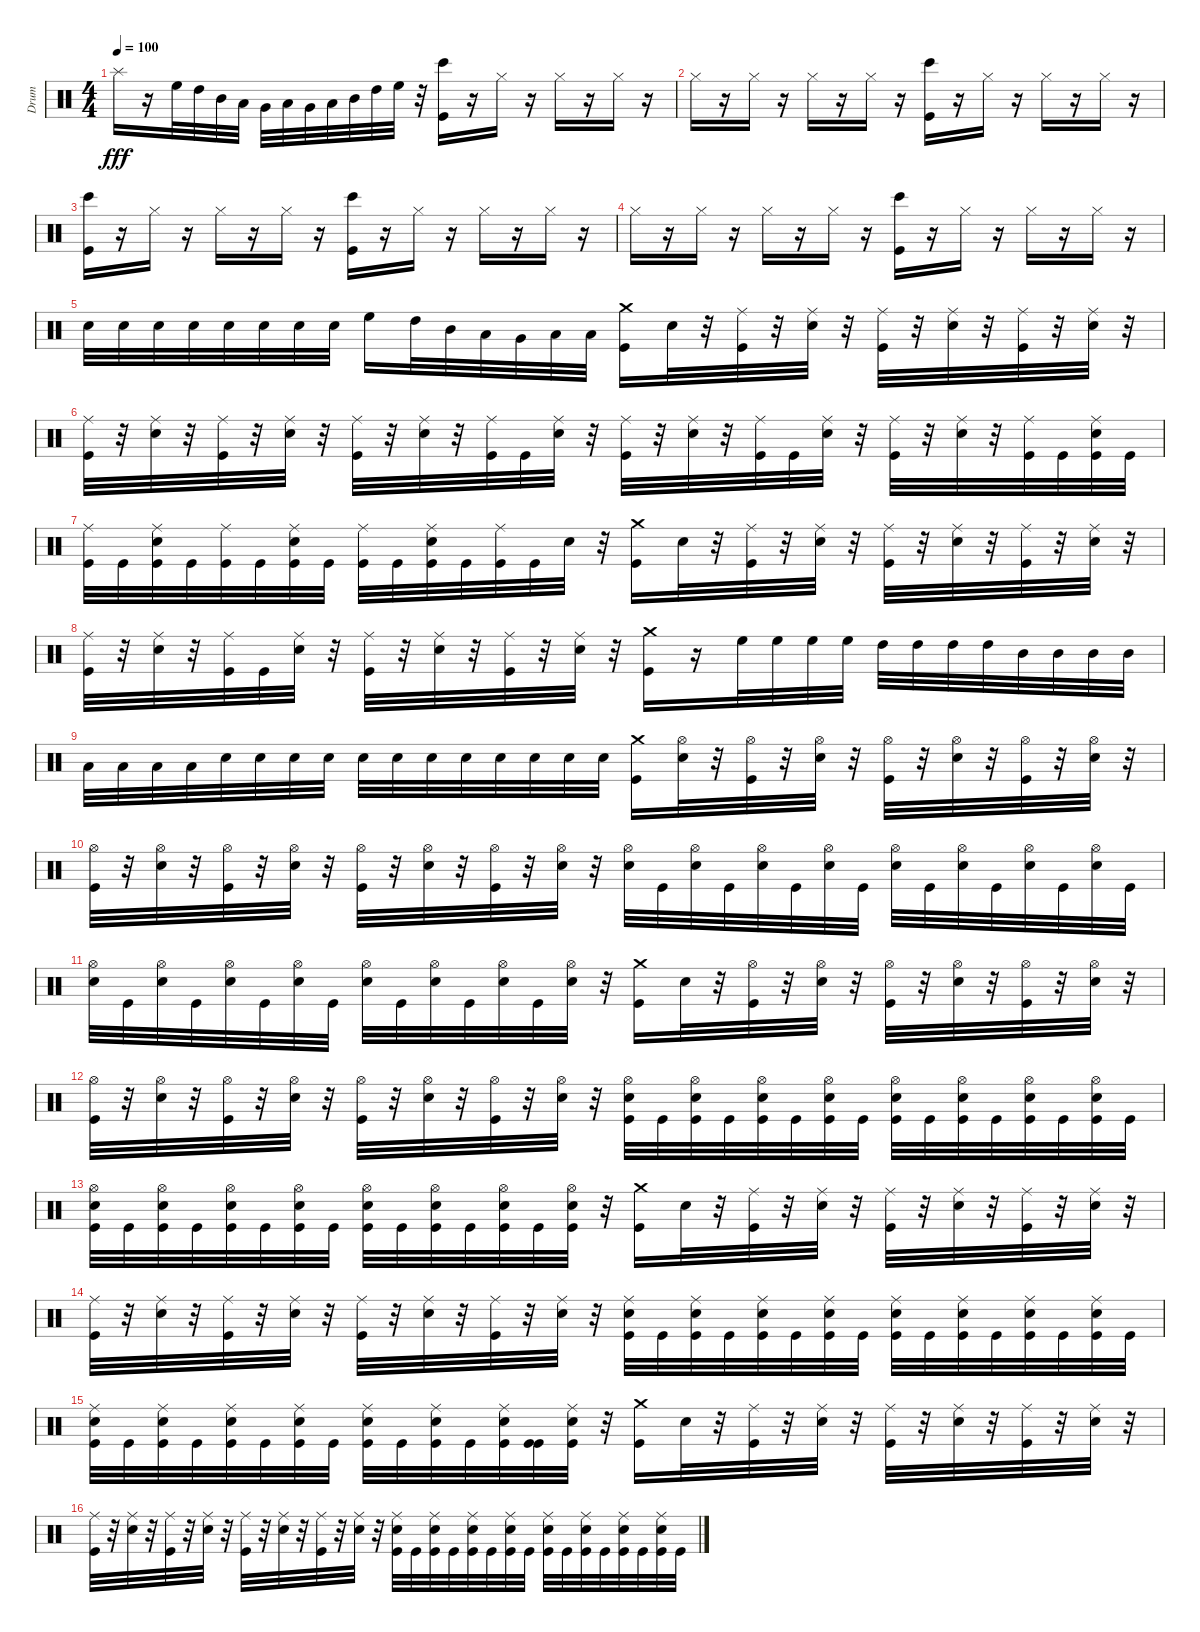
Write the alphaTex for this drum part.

\track ("Drum" "Drum") {instrument percussion}
\staff {score}
\articulation defaults
\ts (4 4)
\tempo 100
\clef neutral
\ks c "Splash (hit)".16{dy fff}
r.16 "High Floor Tom (hit)".32 "High Tom (hit)".32 "Mid Tom (hit)".32 "Low Tom (hit)".32 "Very Low Tom (hit)".32 "Low Floor Tom (hit)".32 "Very Low Tom (hit)".32 "Low Tom (hit)".32 "Mid Tom (hit)".32 "High Tom (hit)".32 "High Floor Tom (hit)".32 r.32 ("Bongo High (hit)" "Kick (hit)").16 r.16 "Hi-Hat (closed)".16 r.16 "Hi-Hat (closed)".16 r.16 "Hi-Hat (closed)".16 r.16 |
"Hi-Hat (closed)".16 r.16 "Hi-Hat (closed)".16 r.16 "Hi-Hat (closed)".16 r.16 "Hi-Hat (closed)".16 r.16 ("Kick (hit)" "Bongo High (hit)").16 r.16 "Hi-Hat (closed)".16 r.16 "Hi-Hat (closed)".16 r.16 "Hi-Hat (closed)".16 r.16 |
("Kick (hit)" "Bongo High (hit)").16 r.16 "Hi-Hat (closed)".16 r.16 "Hi-Hat (closed)".16 r.16 "Hi-Hat (closed)".16 r.16 ("Kick (hit)" "Bongo High (hit)").16 r.16 "Hi-Hat (closed)".16 r.16 "Hi-Hat (closed)".16 r.16 "Hi-Hat (closed)".16 r.16 |
"Hi-Hat (closed)".16 r.16 "Hi-Hat (closed)".16 r.16 "Hi-Hat (closed)".16 r.16 "Hi-Hat (closed)".16 r.16 ("Kick (hit)" "Bongo High (hit)").16 r.16 "Hi-Hat (closed)".16 r.16 "Hi-Hat (closed)".16 r.16 "Hi-Hat (closed)".16 r.16 |
"Snare (hit) 2".32 "Snare (hit) 2".32 "Snare (hit) 2".32 "Snare (hit) 2".32 "Snare (hit) 2".32 "Snare (hit) 2".32 "Snare (hit) 2".32 "Snare (hit) 2".32 "High Floor Tom (hit)".16 "High Tom (hit)".32 "Mid Tom (hit)".32 "Low Tom (hit)".32 "Very Low Tom (hit)".32 "Low Floor Tom (hit)".32 "Low Floor Tom (hit)".32 ("Crash medium (hit)" "Kick (hit)").16 "Snare (hit) 2".32 r.32 ("Ride (middle)" "Kick (hit)").32 r.32 ("Snare (hit) 2" "Ride (middle)").32 r.32 ("Kick (hit)" "Ride (middle)").32 r.32 ("Ride (middle)" "Snare (hit) 2").32 r.32 ("Kick (hit)" "Ride (middle)").32 r.32 ("Snare (hit) 2" "Ride (middle)").32 r.32 |
("Ride (middle)" "Kick (hit)").32 r.32 ("Snare (hit) 2" "Ride (middle)").32 r.32 ("Kick (hit)" "Ride (middle)").32 r.32 ("Ride (middle)" "Snare (hit) 2").32 r.32 ("Ride (middle)" "Kick (hit)").32 r.32 ("Snare (hit) 2" "Ride (middle)").32 r.32 ("Ride (middle)" "Kick (hit)").32 "Kick (hit)".32 ("Snare (hit) 2" "Ride (middle)").32 r.32 ("Ride (middle)" "Kick (hit)").32 r.32 ("Ride (middle)" "Snare (hit) 2").32 r.32 ("Kick (hit)" "Ride (middle)").32 "Kick (hit)".32 ("Snare (hit) 2" "Ride (middle)").32 r.32 ("Kick (hit)" "Ride (middle)").32 r.32 ("Ride (middle)" "Snare (hit) 2").32 r.32 ("Ride (middle)" "Kick (hit)").32 "Kick (hit)".32 ("Ride (middle)" "Kick (hit)" "Snare (hit) 2").32 "Kick (hit)".32 |
("Kick (hit)" "Ride (middle)").32 "Kick (hit)".32 ("Kick (hit)" "Snare (hit) 2" "Ride (middle)").32 "Kick (hit)".32 ("Ride (middle)" "Kick (hit)").32 "Kick (hit)".32 ("Ride (middle)" "Snare (hit) 2" "Kick (hit)").32 "Kick (hit)".32 ("Ride (middle)" "Kick (hit)").32 "Kick (hit)".32 ("Ride (middle)" "Kick (hit)" "Snare (hit) 2").32 "Kick (hit)".32 ("Ride (middle)" "Kick (hit)").32 "Kick (hit)".32 "Snare (hit) 2".32 r.32 ("Kick (hit)" "Crash medium (hit)").16 "Snare (hit) 2".32 r.32 ("Ride (middle)" "Kick (hit)").32 r.32 ("Ride (middle)" "Snare (hit) 2").32 r.32 ("Kick (hit)" "Ride (middle)").32 r.32 ("Ride (middle)" "Snare (hit) 2").32 r.32 ("Kick (hit)" "Ride (middle)").32 r.32 ("Ride (middle)" "Snare (hit) 2").32 r.32 |
("Ride (middle)" "Kick (hit)").32 r.32 ("Snare (hit) 2" "Ride (middle)").32 r.32 ("Ride (middle)" "Kick (hit)").32 "Kick (hit)".32 ("Snare (hit) 2" "Ride (middle)").32 r.32 ("Kick (hit)" "Ride (middle)").32 r.32 ("Snare (hit) 2" "Ride (middle)").32 r.32 ("Ride (middle)" "Kick (hit)").32 r.32 ("Snare (hit) 2" "Ride (middle)").32 r.32 ("Crash medium (hit)" "Kick (hit)").16 r.16 "High Floor Tom (hit)".32 "High Floor Tom (hit)".32 "High Floor Tom (hit)".32 "High Floor Tom (hit)".32 "High Tom (hit)".32 "High Tom (hit)".32 "High Tom (hit)".32 "High Tom (hit)".32 "Mid Tom (hit)".32 "Mid Tom (hit)".32 "Mid Tom (hit)".32 "Mid Tom (hit)".32 |
"Low Tom (hit)".32 "Low Tom (hit)".32 "Low Tom (hit)".32 "Low Tom (hit)".32 "Snare (hit) 2".32 "Snare (hit) 2".32 "Snare (hit) 2".32 "Snare (hit) 2".32 "Snare (hit) 2".32 "Snare (hit) 2".32 "Snare (hit) 2".32 "Snare (hit) 2".32 "Snare (hit) 2".32 "Snare (hit) 2".32 "Snare (hit) 2".32 "Snare (hit) 2".32 ("Crash medium (hit)" "Kick (hit)").16 ("Snare (hit) 2" "Hi-Hat (open)").32 r.32 ("Hi-Hat (open)" "Kick (hit)").32 r.32 ("Snare (hit) 2" "Hi-Hat (open)").32 r.32 ("Hi-Hat (open)" "Kick (hit)").32 r.32 ("Snare (hit) 2" "Hi-Hat (open)").32 r.32 ("Hi-Hat (open)" "Kick (hit)").32 r.32 ("Hi-Hat (open)" "Snare (hit) 2").32 r.32 |
("Hi-Hat (open)" "Kick (hit)").32 r.32 ("Snare (hit) 2" "Hi-Hat (open)").32 r.32 ("Hi-Hat (open)" "Kick (hit)").32 r.32 ("Hi-Hat (open)" "Snare (hit) 2").32 r.32 ("Kick (hit)" "Hi-Hat (open)").32 r.32 ("Hi-Hat (open)" "Snare (hit) 2").32 r.32 ("Kick (hit)" "Hi-Hat (open)").32 r.32 ("Hi-Hat (open)" "Snare (hit) 2").32 r.32 ("Snare (hit) 2" "Hi-Hat (open)").32 "Kick (hit)".32 ("Snare (hit) 2" "Hi-Hat (open)").32 "Kick (hit)".32 ("Snare (hit) 2" "Hi-Hat (open)").32 "Kick (hit)".32 ("Snare (hit) 2" "Hi-Hat (open)").32 "Kick (hit)".32 ("Hi-Hat (open)" "Snare (hit) 2").32 "Kick (hit)".32 ("Snare (hit) 2" "Hi-Hat (open)").32 "Kick (hit)".32 ("Hi-Hat (open)" "Snare (hit) 2").32 "Kick (hit)".32 ("Hi-Hat (open)" "Snare (hit) 2").32 "Kick (hit)".32 |
("Snare (hit) 2" "Hi-Hat (open)").32 "Kick (hit)".32 ("Snare (hit) 2" "Hi-Hat (open)").32 "Kick (hit)".32 ("Hi-Hat (open)" "Snare (hit) 2").32 "Kick (hit)".32 ("Snare (hit) 2" "Hi-Hat (open)").32 "Kick (hit)".32 ("Hi-Hat (open)" "Snare (hit) 2").32 "Kick (hit)".32 ("Hi-Hat (open)" "Snare (hit) 2").32 "Kick (hit)".32 ("Snare (hit) 2" "Hi-Hat (open)").32 "Kick (hit)".32 ("Hi-Hat (open)" "Snare (hit) 2").32 r.32 ("Kick (hit)" "Crash medium (hit)").16 "Snare (hit) 2".32 r.32 ("Kick (hit)" "Hi-Hat (open)").32 r.32 ("Snare (hit) 2" "Hi-Hat (open)").32 r.32 ("Hi-Hat (open)" "Kick (hit)").32 r.32 ("Snare (hit) 2" "Hi-Hat (open)").32 r.32 ("Kick (hit)" "Hi-Hat (open)").32 r.32 ("Hi-Hat (open)" "Snare (hit) 2").32 r.32 |
("Hi-Hat (open)" "Kick (hit)").32 r.32 ("Snare (hit) 2" "Hi-Hat (open)").32 r.32 ("Kick (hit)" "Hi-Hat (open)").32 r.32 ("Hi-Hat (open)" "Snare (hit) 2").32 r.32 ("Hi-Hat (open)" "Kick (hit)").32 r.32 ("Snare (hit) 2" "Hi-Hat (open)").32 r.32 ("Kick (hit)" "Hi-Hat (open)").32 r.32 ("Hi-Hat (open)" "Snare (hit) 2").32 r.32 ("Kick (hit)" "Hi-Hat (open)" "Snare (hit) 2").32 "Kick (hit)".32 ("Snare (hit) 2" "Hi-Hat (open)" "Kick (hit)").32 "Kick (hit)".32 ("Snare (hit) 2" "Kick (hit)" "Hi-Hat (open)").32 "Kick (hit)".32 ("Kick (hit)" "Snare (hit) 2" "Hi-Hat (open)").32 "Kick (hit)".32 ("Hi-Hat (open)" "Kick (hit)" "Snare (hit) 2").32 "Kick (hit)".32 ("Kick (hit)" "Snare (hit) 2" "Hi-Hat (open)").32 "Kick (hit)".32 ("Kick (hit)" "Snare (hit) 2" "Hi-Hat (open)").32 "Kick (hit)".32 ("Hi-Hat (open)" "Kick (hit)" "Snare (hit) 2").32 "Kick (hit)".32 |
("Kick (hit)" "Snare (hit) 2" "Hi-Hat (open)").32 "Kick (hit)".32 ("Kick (hit)" "Hi-Hat (open)" "Snare (hit) 2").32 "Kick (hit)".32 ("Snare (hit) 2" "Kick (hit)" "Hi-Hat (open)").32 "Kick (hit)".32 ("Kick (hit)" "Hi-Hat (open)" "Snare (hit) 2").32 "Kick (hit)".32 ("Kick (hit)" "Hi-Hat (open)" "Snare (hit) 2").32 "Kick (hit)".32 ("Kick (hit)" "Hi-Hat (open)" "Snare (hit) 2").32 "Kick (hit)".32 ("Hi-Hat (open)" "Snare (hit) 2" "Kick (hit)").32 "Kick (hit)".32 ("Snare (hit) 2" "Kick (hit)" "Hi-Hat (open)").32 r.32 ("Crash medium (hit)" "Kick (hit)").16 "Snare (hit) 2".32 r.32 ("Kick (hit)" "Ride (middle)").32 r.32 ("Ride (middle)" "Snare (hit) 2").32 r.32 ("Ride (middle)" "Kick (hit)").32 r.32 ("Ride (middle)" "Snare (hit) 2").32 r.32 ("Kick (hit)" "Ride (middle)").32 r.32 ("Ride (middle)" "Snare (hit) 2").32 r.32 |
("Ride (middle)" "Kick (hit)").32 r.32 ("Snare (hit) 2" "Ride (middle)").32 r.32 ("Kick (hit)" "Ride (middle)").32 r.32 ("Snare (hit) 2" "Ride (middle)").32 r.32 ("Kick (hit)" "Ride (middle)").32 r.32 ("Snare (hit) 2" "Ride (middle)").32 r.32 ("Ride (middle)" "Kick (hit)").32 r.32 ("Snare (hit) 2" "Ride (middle)").32 r.32 ("Ride (middle)" "Kick (hit)" "Snare (hit) 2").32 "Kick (hit)".32 ("Snare (hit) 2" "Kick (hit)" "Ride (middle)").32 "Kick (hit)".32 ("Kick (hit)" "Snare (hit) 2" "Ride (middle)").32 "Kick (hit)".32 ("Ride (middle)" "Snare (hit) 2" "Kick (hit)").32 "Kick (hit)".32 ("Snare (hit) 2" "Ride (middle)" "Kick (hit)").32 "Kick (hit)".32 ("Snare (hit) 2" "Kick (hit)" "Ride (middle)").32 "Kick (hit)".32 ("Ride (middle)" "Kick (hit)" "Snare (hit) 2").32 "Kick (hit)".32 ("Snare (hit) 2" "Ride (middle)" "Kick (hit)").32 "Kick (hit)".32 |
("Kick (hit)" "Ride (middle)" "Snare (hit) 2").32 "Kick (hit)".32 ("Kick (hit)" "Snare (hit) 2" "Ride (middle)").32 "Kick (hit)".32 ("Snare (hit) 2" "Kick (hit)" "Ride (middle)").32 "Kick (hit)".32 ("Kick (hit)" "Snare (hit) 2" "Ride (middle)").32 "Kick (hit)".32 ("Ride (middle)" "Kick (hit)" "Snare (hit) 2").32 "Kick (hit)".32 ("Ride (middle)" "Snare (hit) 2" "Kick (hit)").32 "Kick (hit)".32 ("Snare (hit) 2" "Ride (middle)" "Kick (hit)").32 ("Kick (hit)" "Kick (hit)").32 ("Snare (hit) 2" "Ride (middle)" "Kick (hit)").32 r.32 ("Kick (hit)" "Crash medium (hit)").16 "Snare (hit) 2".32 r.32 ("Kick (hit)" "Ride (middle)").32 r.32 ("Ride (middle)" "Snare (hit) 2").32 r.32 ("Ride (middle)" "Kick (hit)").32 r.32 ("Ride (middle)" "Snare (hit) 2").32 r.32 ("Kick (hit)" "Ride (middle)").32 r.32 ("Ride (middle)" "Snare (hit) 2").32 r.32 |
("Kick (hit)" "Ride (middle)").32 r.32 ("Ride (middle)" "Snare (hit) 2").32 r.32 ("Ride (middle)" "Kick (hit)").32 r.32 ("Ride (middle)" "Snare (hit) 2").32 r.32 ("Ride (middle)" "Kick (hit)").32 r.32 ("Snare (hit) 2" "Ride (middle)").32 r.32 ("Ride (middle)" "Kick (hit)").32 r.32 ("Ride (middle)" "Snare (hit) 2").32 r.32 ("Kick (hit)" "Ride (middle)" "Snare (hit) 2").32 "Kick (hit)".32 ("Snare (hit) 2" "Ride (middle)" "Kick (hit)").32 "Kick (hit)".32 ("Snare (hit) 2" "Ride (middle)" "Kick (hit)").32 "Kick (hit)".32 ("Kick (hit)" "Snare (hit) 2" "Ride (middle)").32 "Kick (hit)".32 ("Kick (hit)" "Ride (middle)" "Snare (hit) 2").32 "Kick (hit)".32 ("Ride (middle)" "Snare (hit) 2" "Kick (hit)").32 "Kick (hit)".32 ("Snare (hit) 2" "Ride (middle)" "Kick (hit)").32 "Kick (hit)".32 ("Ride (middle)" "Snare (hit) 2" "Kick (hit)").32 "Kick (hit)".32
